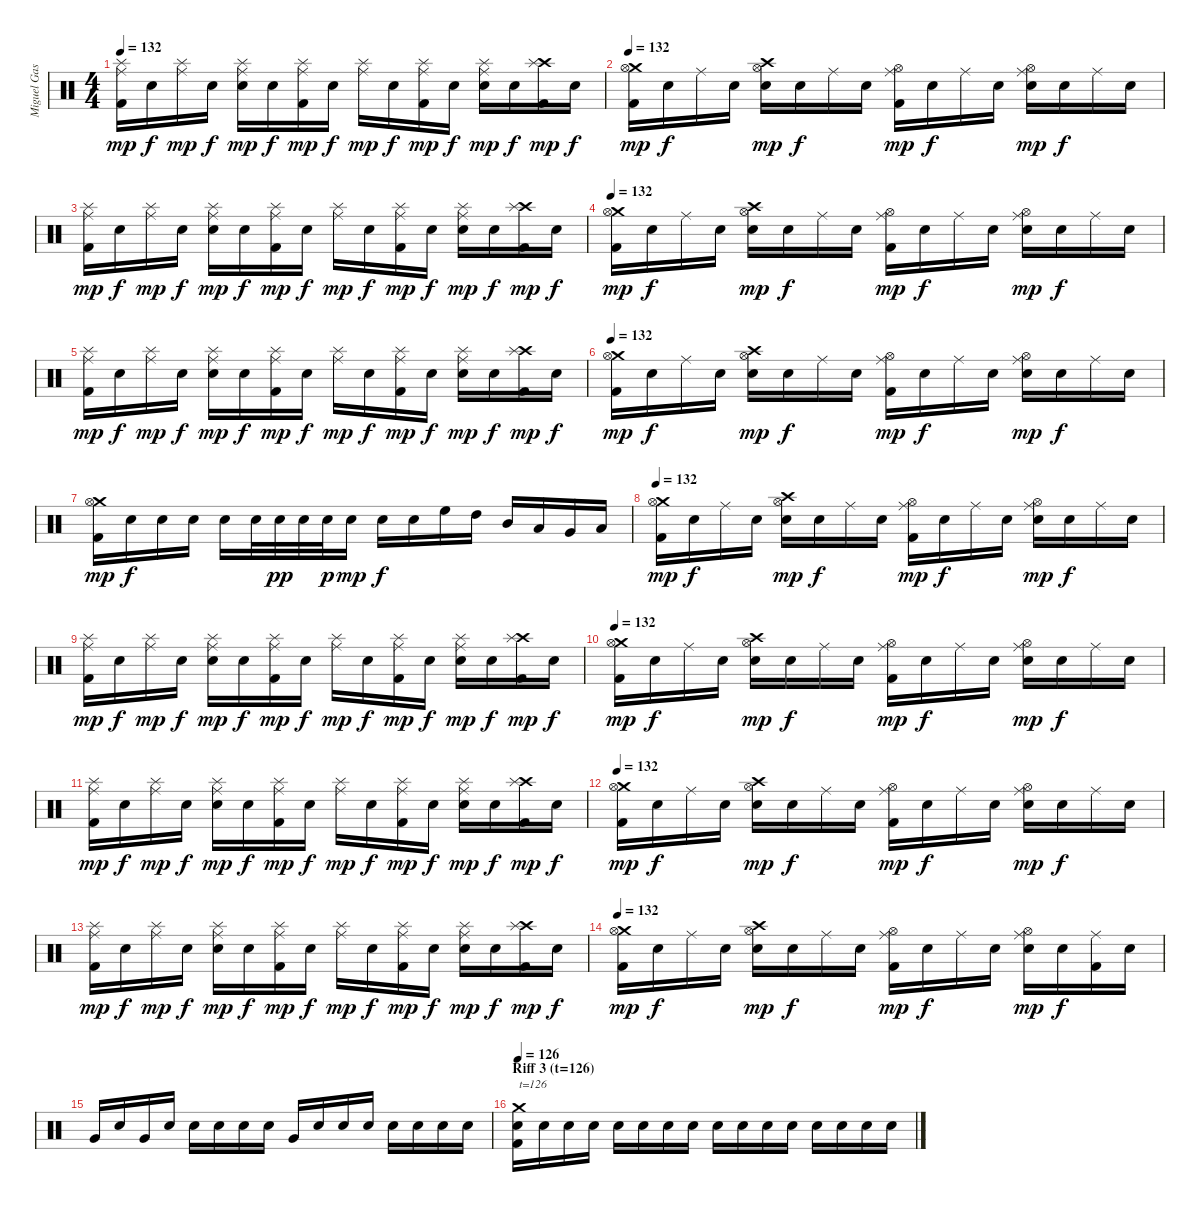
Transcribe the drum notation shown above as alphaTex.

\track ("Miguel Gaspar - Drums" "Miguel Gas") {instrument percussion}
\staff {score}
\articulation defaults
\ts (4 4)
\tempo 132
\clef neutral
\ks c
("Ride (middle)" "Splash (hit)" "Kick (hit) 2").16{dy mp} "Snare (hit)".16{dy f} ("Ride (middle)" "Splash (hit)").16{dy mp} "Snare (hit)".16{dy f} ("Ride (middle)" "Splash (hit)" "Electric Snare (hit)").16{dy mp} "Snare (hit)".16{dy f} ("Ride (middle)" "Splash (hit)" "Kick (hit) 2").16{dy mp} "Snare (hit)".16{dy f} ("Ride (middle)" "Splash (hit)").16{dy mp} "Snare (hit)".16{dy f} ("Ride (middle)" "Splash (hit)" "Kick (hit) 2").16{dy mp} "Snare (hit)".16{dy f} ("Ride (middle)" "Splash (hit)" "Electric Snare (hit)").16{dy mp} "Snare (hit)".16{dy f} ("Crash high (hit)" "Splash (hit)" "Kick (hit) 2").16{dy mp} "Snare (hit)".16{dy f} |
\tempo 132
("Crash medium (hit)" "Hi-Hat (open)" "Kick (hit) 2").16{dy mp volume 16 balance 8} "Snare (hit)".16{dy f} "Ride (middle)".16 "Snare (hit)".16 ("Crash high (hit)" "Hi-Hat (open)" "Electric Snare (hit)").16{dy mp} "Snare (hit)".16{dy f} "Ride (middle)".16 "Snare (hit)".16 ("Ride (middle)" "Hi-Hat (open)" "Kick (hit) 2").16{dy mp} "Snare (hit)".16{dy f} "Ride (middle)".16 "Snare (hit)".16 ("Ride (middle)" "Hi-Hat (open)" "Electric Snare (hit)").16{dy mp} "Snare (hit)".16{dy f} "Ride (middle)".16 "Snare (hit)".16 |
("Ride (middle)" "Splash (hit)" "Kick (hit) 2").16{dy mp} "Snare (hit)".16{dy f} ("Ride (middle)" "Splash (hit)").16{dy mp} "Snare (hit)".16{dy f} ("Ride (middle)" "Splash (hit)" "Electric Snare (hit)").16{dy mp} "Snare (hit)".16{dy f} ("Ride (middle)" "Splash (hit)" "Kick (hit) 2").16{dy mp} "Snare (hit)".16{dy f} ("Ride (middle)" "Splash (hit)").16{dy mp} "Snare (hit)".16{dy f} ("Ride (middle)" "Splash (hit)" "Kick (hit) 2").16{dy mp} "Snare (hit)".16{dy f} ("Ride (middle)" "Splash (hit)" "Electric Snare (hit)").16{dy mp} "Snare (hit)".16{dy f} ("Crash high (hit)" "Splash (hit)" "Kick (hit) 2").16{dy mp} "Snare (hit)".16{dy f} |
\tempo 132
("Crash medium (hit)" "Hi-Hat (open)" "Kick (hit) 2").16{dy mp volume 16 balance 8} "Snare (hit)".16{dy f} "Ride (middle)".16 "Snare (hit)".16 ("Crash high (hit)" "Hi-Hat (open)" "Electric Snare (hit)").16{dy mp} "Snare (hit)".16{dy f} "Ride (middle)".16 "Snare (hit)".16 ("Ride (middle)" "Hi-Hat (open)" "Kick (hit) 2").16{dy mp} "Snare (hit)".16{dy f} "Ride (middle)".16 "Snare (hit)".16 ("Ride (middle)" "Hi-Hat (open)" "Electric Snare (hit)").16{dy mp} "Snare (hit)".16{dy f} "Ride (middle)".16 "Snare (hit)".16 |
("Ride (middle)" "Splash (hit)" "Kick (hit) 2").16{dy mp} "Snare (hit)".16{dy f} ("Ride (middle)" "Splash (hit)").16{dy mp} "Snare (hit)".16{dy f} ("Ride (middle)" "Splash (hit)" "Electric Snare (hit)").16{dy mp} "Snare (hit)".16{dy f} ("Ride (middle)" "Splash (hit)" "Kick (hit) 2").16{dy mp} "Snare (hit)".16{dy f} ("Ride (middle)" "Splash (hit)").16{dy mp} "Snare (hit)".16{dy f} ("Ride (middle)" "Splash (hit)" "Kick (hit) 2").16{dy mp} "Snare (hit)".16{dy f} ("Ride (middle)" "Splash (hit)" "Electric Snare (hit)").16{dy mp} "Snare (hit)".16{dy f} ("Crash high (hit)" "Splash (hit)" "Kick (hit) 2").16{dy mp} "Snare (hit)".16{dy f} |
\tempo 132
("Crash medium (hit)" "Hi-Hat (open)" "Kick (hit) 2").16{dy mp volume 16 balance 8} "Snare (hit)".16{dy f} "Ride (middle)".16 "Snare (hit)".16 ("Crash high (hit)" "Hi-Hat (open)" "Electric Snare (hit)").16{dy mp} "Snare (hit)".16{dy f} "Ride (middle)".16 "Snare (hit)".16 ("Ride (middle)" "Hi-Hat (open)" "Kick (hit) 2").16{dy mp} "Snare (hit)".16{dy f} "Ride (middle)".16 "Snare (hit)".16 ("Ride (middle)" "Hi-Hat (open)" "Electric Snare (hit)").16{dy mp} "Snare (hit)".16{dy f} "Ride (middle)".16 "Snare (hit)".16 |
("Crash medium (hit)" "Hi-Hat (open)" "Kick (hit) 2").16{dy mp} "Snare (hit)".16{dy f} "Snare (hit)".16 "Snare (hit)".16 "Electric Snare (hit)".16 "Snare (hit)".32 "Electric Snare (hit)".32{dy pp} "Electric Snare (hit)".32 "Electric Snare (hit)".32{dy p} "Electric Snare (hit)".16{dy mp} "Electric Snare (hit)".16{dy f} "Snare (hit)".16 "High Floor Tom (hit)".16 "High Tom (hit)".16 "Mid Tom (hit)".16 "Low Tom (hit)".16 "Very Low Tom (hit)".16 "Low Floor Tom (hit)".16 |
\section ("" "")
\tempo 132
("Crash medium (hit)" "Hi-Hat (open)" "Kick (hit) 2").16{dy mp volume 16 balance 8} "Snare (hit)".16{dy f} "Ride (middle)".16 "Snare (hit)".16 ("Crash high (hit)" "Hi-Hat (open)" "Electric Snare (hit)").16{dy mp} "Snare (hit)".16{dy f} "Ride (middle)".16 "Snare (hit)".16 ("Ride (middle)" "Hi-Hat (open)" "Kick (hit) 2").16{dy mp} "Snare (hit)".16{dy f} "Ride (middle)".16 "Snare (hit)".16 ("Ride (middle)" "Hi-Hat (open)" "Electric Snare (hit)").16{dy mp} "Snare (hit)".16{dy f} "Ride (middle)".16 "Snare (hit)".16 |
("Ride (middle)" "Splash (hit)" "Kick (hit) 2").16{dy mp} "Snare (hit)".16{dy f} ("Ride (middle)" "Splash (hit)").16{dy mp} "Snare (hit)".16{dy f} ("Ride (middle)" "Splash (hit)" "Electric Snare (hit)").16{dy mp} "Snare (hit)".16{dy f} ("Ride (middle)" "Splash (hit)" "Kick (hit) 2").16{dy mp} "Snare (hit)".16{dy f} ("Ride (middle)" "Splash (hit)").16{dy mp} "Snare (hit)".16{dy f} ("Ride (middle)" "Splash (hit)" "Kick (hit) 2").16{dy mp} "Snare (hit)".16{dy f} ("Ride (middle)" "Splash (hit)" "Electric Snare (hit)").16{dy mp} "Snare (hit)".16{dy f} ("Crash high (hit)" "Splash (hit)" "Kick (hit) 2").16{dy mp} "Snare (hit)".16{dy f} |
\tempo 132
("Crash medium (hit)" "Hi-Hat (open)" "Kick (hit) 2").16{dy mp volume 16 balance 8} "Snare (hit)".16{dy f} "Ride (middle)".16 "Snare (hit)".16 ("Crash high (hit)" "Hi-Hat (open)" "Electric Snare (hit)").16{dy mp} "Snare (hit)".16{dy f} "Ride (middle)".16 "Snare (hit)".16 ("Ride (middle)" "Hi-Hat (open)" "Kick (hit) 2").16{dy mp} "Snare (hit)".16{dy f} "Ride (middle)".16 "Snare (hit)".16 ("Ride (middle)" "Hi-Hat (open)" "Electric Snare (hit)").16{dy mp} "Snare (hit)".16{dy f} "Ride (middle)".16 "Snare (hit)".16 |
("Ride (middle)" "Splash (hit)" "Kick (hit) 2").16{dy mp} "Snare (hit)".16{dy f} ("Ride (middle)" "Splash (hit)").16{dy mp} "Snare (hit)".16{dy f} ("Ride (middle)" "Splash (hit)" "Electric Snare (hit)").16{dy mp} "Snare (hit)".16{dy f} ("Ride (middle)" "Splash (hit)" "Kick (hit) 2").16{dy mp} "Snare (hit)".16{dy f} ("Ride (middle)" "Splash (hit)").16{dy mp} "Snare (hit)".16{dy f} ("Ride (middle)" "Splash (hit)" "Kick (hit) 2").16{dy mp} "Snare (hit)".16{dy f} ("Ride (middle)" "Splash (hit)" "Electric Snare (hit)").16{dy mp} "Snare (hit)".16{dy f} ("Crash high (hit)" "Splash (hit)" "Kick (hit) 2").16{dy mp} "Snare (hit)".16{dy f} |
\tempo 132
("Crash medium (hit)" "Hi-Hat (open)" "Kick (hit) 2").16{dy mp volume 16 balance 8} "Snare (hit)".16{dy f} "Ride (middle)".16 "Snare (hit)".16 ("Crash high (hit)" "Hi-Hat (open)" "Electric Snare (hit)").16{dy mp} "Snare (hit)".16{dy f} "Ride (middle)".16 "Snare (hit)".16 ("Ride (middle)" "Hi-Hat (open)" "Kick (hit) 2").16{dy mp} "Snare (hit)".16{dy f} "Ride (middle)".16 "Snare (hit)".16 ("Ride (middle)" "Hi-Hat (open)" "Electric Snare (hit)").16{dy mp} "Snare (hit)".16{dy f} "Ride (middle)".16 "Snare (hit)".16 |
("Ride (middle)" "Splash (hit)" "Kick (hit) 2").16{dy mp} "Snare (hit)".16{dy f} ("Ride (middle)" "Splash (hit)").16{dy mp} "Snare (hit)".16{dy f} ("Ride (middle)" "Splash (hit)" "Electric Snare (hit)").16{dy mp} "Snare (hit)".16{dy f} ("Ride (middle)" "Splash (hit)" "Kick (hit) 2").16{dy mp} "Snare (hit)".16{dy f} ("Ride (middle)" "Splash (hit)").16{dy mp} "Snare (hit)".16{dy f} ("Ride (middle)" "Splash (hit)" "Kick (hit) 2").16{dy mp} "Snare (hit)".16{dy f} ("Ride (middle)" "Splash (hit)" "Electric Snare (hit)").16{dy mp} "Snare (hit)".16{dy f} ("Crash high (hit)" "Splash (hit)" "Kick (hit) 2").16{dy mp} "Snare (hit)".16{dy f} |
\tempo 132
("Crash medium (hit)" "Hi-Hat (open)" "Kick (hit) 2").16{dy mp volume 16 balance 8} "Snare (hit)".16{dy f} "Ride (middle)".16 "Snare (hit)".16 ("Crash high (hit)" "Hi-Hat (open)" "Electric Snare (hit)").16{dy mp} "Snare (hit)".16{dy f} "Ride (middle)".16 "Snare (hit)".16 ("Ride (middle)" "Hi-Hat (open)" "Kick (hit) 2").16{dy mp} "Snare (hit)".16{dy f} "Ride (middle)".16 "Snare (hit)".16 ("Ride (middle)" "Hi-Hat (open)" "Electric Snare (hit)").16{dy mp} "Snare (hit)".16{dy f} ("Ride (middle)" "Kick (hit) 2").16 "Snare (hit)".16 |
"Very Low Tom (hit)".16 "Snare (hit)".16 "Very Low Tom (hit)".16 "Snare (hit)".16 "Electric Snare (hit)".16 "Snare (hit)".16 "Electric Snare (hit)".16 "Snare (hit)".16 "Very Low Tom (hit)".16 "Snare (hit)".16 "Electric Snare (hit)".16 "Snare (hit)".16 "Electric Snare (hit)".16 "Snare (hit)".16 "Electric Snare (hit)".16 "Snare (hit)".16 |
\section ("" "Riff 3 (t=126)")
\tempo 126
("Crash medium (hit)" "Electric Snare (hit)" "Kick (hit) 2").16{txt "t=126" volume 12 balance 8} "Snare (hit)".16 "Snare (hit)".16 "Snare (hit)".16 "Snare (hit)".16 "Snare (hit)".16 "Snare (hit)".16 "Snare (hit)".16 "Snare (hit)".16 "Snare (hit)".16 "Snare (hit)".16 "Snare (hit)".16 "Snare (hit)".16 "Snare (hit)".16 "Snare (hit)".16 "Snare (hit)".16
